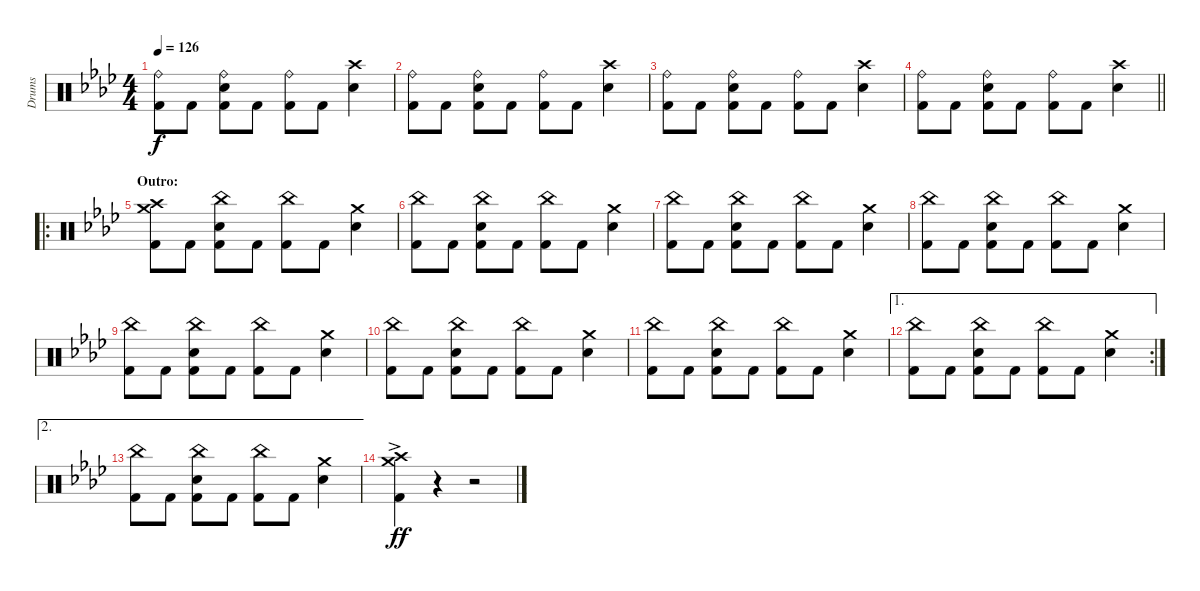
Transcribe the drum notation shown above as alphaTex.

\track ("Drums" "Drums") {instrument percussion}
\staff {score}
\articulation defaults
\ts (4 4)
\tempo 126
\clef neutral
\ks fminor
("Ride (bell)" "Kick (hit) 2").8{dy f} "Kick (hit) 2".8 ("Ride (bell)" "Electric Snare (hit)" "Kick (hit) 2").8 "Kick (hit) 2".8 ("Ride (bell)" "Kick (hit) 2").8 "Kick (hit) 2".8 ("Crash high (hit)" "Electric Snare (hit)").4 |
("Ride (bell)" "Kick (hit) 2").8 "Kick (hit) 2".8 ("Ride (bell)" "Electric Snare (hit)" "Kick (hit) 2").8 "Kick (hit) 2".8 ("Ride (bell)" "Kick (hit) 2").8 "Kick (hit) 2".8 ("Crash high (hit)" "Electric Snare (hit)").4 |
("Ride (bell)" "Kick (hit) 2").8 "Kick (hit) 2".8 ("Ride (bell)" "Electric Snare (hit)" "Kick (hit) 2").8 "Kick (hit) 2".8 ("Ride (bell)" "Kick (hit) 2").8 "Kick (hit) 2".8 ("Crash high (hit)" "Electric Snare (hit)").4 |
\barLineRight lightlight
("Ride (bell)" "Kick (hit) 2").8 "Kick (hit) 2".8 ("Ride (bell)" "Electric Snare (hit)" "Kick (hit) 2").8 "Kick (hit) 2".8 ("Ride (bell)" "Kick (hit) 2").8 "Kick (hit) 2".8 ("Crash high (hit)" "Electric Snare (hit)").4 |
\ro
\section ("" "Outro:")
("Crash medium (hit)" "Crash high (hit)" "Kick (hit) 2").8 "Kick (hit) 2".8 ("China (hit)" "Electric Snare (hit)" "Kick (hit) 2").8 "Kick (hit) 2".8 ("China (hit)" "Kick (hit) 2").8 "Kick (hit) 2".8 ("Crash medium (hit)" "Electric Snare (hit)").4 |
("China (hit)" "Kick (hit) 2").8 "Kick (hit) 2".8 ("China (hit)" "Electric Snare (hit)" "Kick (hit) 2").8 "Kick (hit) 2".8 ("China (hit)" "Kick (hit) 2").8 "Kick (hit) 2".8 ("Crash medium (hit)" "Electric Snare (hit)").4 |
("China (hit)" "Kick (hit) 2").8 "Kick (hit) 2".8 ("China (hit)" "Electric Snare (hit)" "Kick (hit) 2").8 "Kick (hit) 2".8 ("China (hit)" "Kick (hit) 2").8 "Kick (hit) 2".8 ("Crash medium (hit)" "Electric Snare (hit)").4 |
("China (hit)" "Kick (hit) 2").8 "Kick (hit) 2".8 ("China (hit)" "Electric Snare (hit)" "Kick (hit) 2").8 "Kick (hit) 2".8 ("China (hit)" "Kick (hit) 2").8 "Kick (hit) 2".8 ("Crash medium (hit)" "Electric Snare (hit)").4 |
("China (hit)" "Kick (hit) 2").8 "Kick (hit) 2".8 ("China (hit)" "Electric Snare (hit)" "Kick (hit) 2").8 "Kick (hit) 2".8 ("China (hit)" "Kick (hit) 2").8 "Kick (hit) 2".8 ("Crash medium (hit)" "Electric Snare (hit)").4 |
("China (hit)" "Kick (hit) 2").8 "Kick (hit) 2".8 ("China (hit)" "Electric Snare (hit)" "Kick (hit) 2").8 "Kick (hit) 2".8 ("China (hit)" "Kick (hit) 2").8 "Kick (hit) 2".8 ("Crash medium (hit)" "Electric Snare (hit)").4 |
("China (hit)" "Kick (hit) 2").8 "Kick (hit) 2".8 ("China (hit)" "Electric Snare (hit)" "Kick (hit) 2").8 "Kick (hit) 2".8 ("China (hit)" "Kick (hit) 2").8 "Kick (hit) 2".8 ("Crash medium (hit)" "Electric Snare (hit)").4 |
\ae 1
\rc 2
("China (hit)" "Kick (hit) 2").8 "Kick (hit) 2".8 ("China (hit)" "Electric Snare (hit)" "Kick (hit) 2").8 "Kick (hit) 2".8 ("China (hit)" "Kick (hit) 2").8 "Kick (hit) 2".8 ("Crash medium (hit)" "Electric Snare (hit)").4 |
\ae 2
("China (hit)" "Kick (hit) 2").8 "Kick (hit) 2".8 ("China (hit)" "Electric Snare (hit)" "Kick (hit) 2").8 "Kick (hit) 2".8 ("China (hit)" "Kick (hit) 2").8 "Kick (hit) 2".8 ("Crash medium (hit)" "Electric Snare (hit)").4 |
("Kick (hit) 2"{ac} "Crash medium (hit)"{ac} "Crash high (hit)"{ac}).4{dy ff} r.4 r.2
